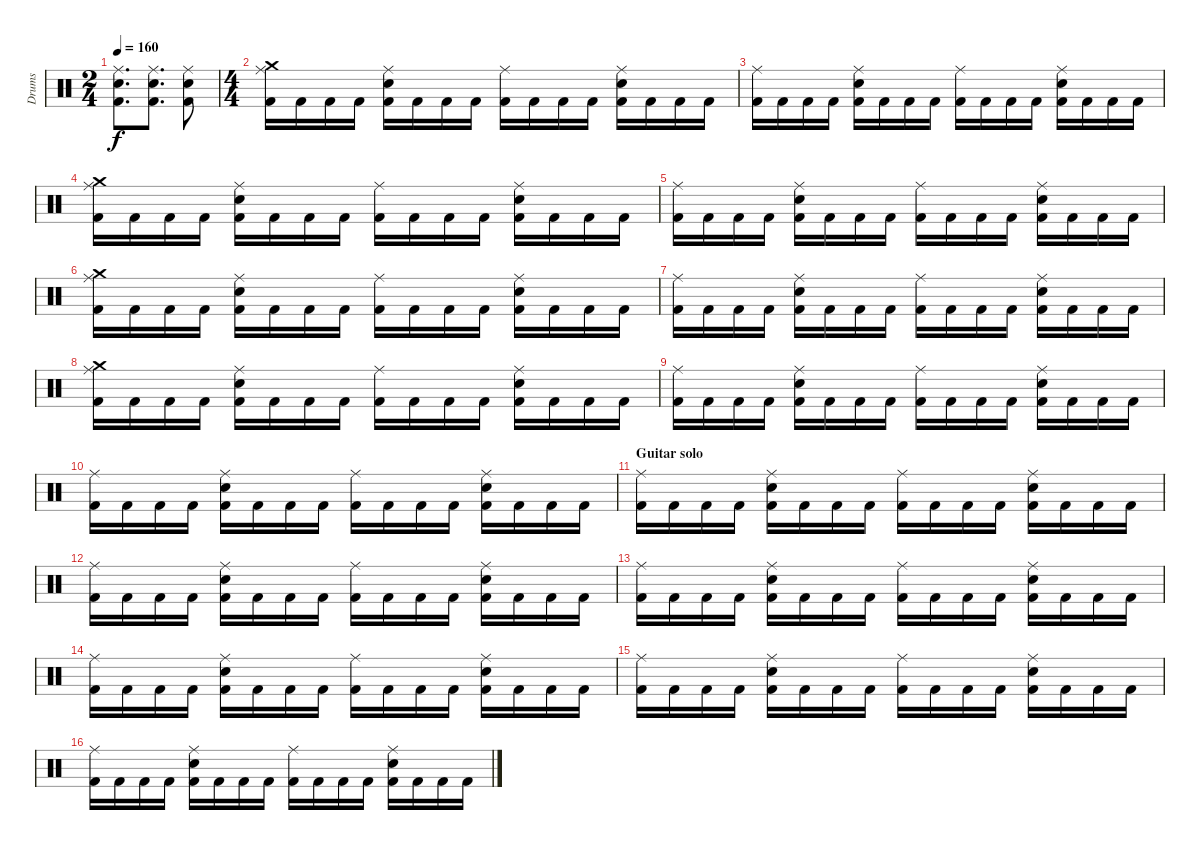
\track ("Drums" "Drums") {instrument percussion}
\staff {score}
\articulation defaults
\ts (2 4)
\tempo 160
\clef neutral
\ks c
("Kick (hit) 2" "Electric Snare (hit)" "Ride (middle)").8{d dy f} ("Kick (hit) 2" "Electric Snare (hit)" "Ride (middle)").8{d} ("Kick (hit) 2" "Electric Snare (hit)" "Ride (middle)").8 |
\ts (4 4)
("Kick (hit) 2" "Ride (middle)" "Crash medium (hit)").16 "Kick (hit) 2".16 "Kick (hit) 2".16 "Kick (hit) 2".16 ("Kick (hit) 2" "Ride (middle)" "Electric Snare (hit)").16 "Kick (hit) 2".16 "Kick (hit) 2".16 "Kick (hit) 2".16 ("Kick (hit) 2" "Ride (middle)").16 "Kick (hit) 2".16 "Kick (hit) 2".16 "Kick (hit) 2".16 ("Kick (hit) 2" "Ride (middle)" "Electric Snare (hit)").16 "Kick (hit) 2".16 "Kick (hit) 2".16 "Kick (hit) 2".16 |
("Kick (hit) 2" "Ride (middle)").16 "Kick (hit) 2".16 "Kick (hit) 2".16 "Kick (hit) 2".16 ("Kick (hit) 2" "Ride (middle)" "Electric Snare (hit)").16 "Kick (hit) 2".16 "Kick (hit) 2".16 "Kick (hit) 2".16 ("Kick (hit) 2" "Ride (middle)").16 "Kick (hit) 2".16 "Kick (hit) 2".16 "Kick (hit) 2".16 ("Kick (hit) 2" "Ride (middle)" "Electric Snare (hit)").16 "Kick (hit) 2".16 "Kick (hit) 2".16 "Kick (hit) 2".16 |
("Kick (hit) 2" "Ride (middle)" "Crash medium (hit)").16 "Kick (hit) 2".16 "Kick (hit) 2".16 "Kick (hit) 2".16 ("Kick (hit) 2" "Ride (middle)" "Electric Snare (hit)").16 "Kick (hit) 2".16 "Kick (hit) 2".16 "Kick (hit) 2".16 ("Kick (hit) 2" "Ride (middle)").16 "Kick (hit) 2".16 "Kick (hit) 2".16 "Kick (hit) 2".16 ("Kick (hit) 2" "Ride (middle)" "Electric Snare (hit)").16 "Kick (hit) 2".16 "Kick (hit) 2".16 "Kick (hit) 2".16 |
("Kick (hit) 2" "Ride (middle)").16 "Kick (hit) 2".16 "Kick (hit) 2".16 "Kick (hit) 2".16 ("Kick (hit) 2" "Ride (middle)" "Electric Snare (hit)").16 "Kick (hit) 2".16 "Kick (hit) 2".16 "Kick (hit) 2".16 ("Kick (hit) 2" "Ride (middle)").16 "Kick (hit) 2".16 "Kick (hit) 2".16 "Kick (hit) 2".16 ("Kick (hit) 2" "Ride (middle)" "Electric Snare (hit)").16 "Kick (hit) 2".16 "Kick (hit) 2".16 "Kick (hit) 2".16 |
("Kick (hit) 2" "Ride (middle)" "Crash medium (hit)").16 "Kick (hit) 2".16 "Kick (hit) 2".16 "Kick (hit) 2".16 ("Kick (hit) 2" "Ride (middle)" "Electric Snare (hit)").16 "Kick (hit) 2".16 "Kick (hit) 2".16 "Kick (hit) 2".16 ("Kick (hit) 2" "Ride (middle)").16 "Kick (hit) 2".16 "Kick (hit) 2".16 "Kick (hit) 2".16 ("Kick (hit) 2" "Ride (middle)" "Electric Snare (hit)").16 "Kick (hit) 2".16 "Kick (hit) 2".16 "Kick (hit) 2".16 |
("Kick (hit) 2" "Ride (middle)").16 "Kick (hit) 2".16 "Kick (hit) 2".16 "Kick (hit) 2".16 ("Kick (hit) 2" "Ride (middle)" "Electric Snare (hit)").16 "Kick (hit) 2".16 "Kick (hit) 2".16 "Kick (hit) 2".16 ("Kick (hit) 2" "Ride (middle)").16 "Kick (hit) 2".16 "Kick (hit) 2".16 "Kick (hit) 2".16 ("Kick (hit) 2" "Ride (middle)" "Electric Snare (hit)").16 "Kick (hit) 2".16 "Kick (hit) 2".16 "Kick (hit) 2".16 |
("Kick (hit) 2" "Ride (middle)" "Crash medium (hit)").16 "Kick (hit) 2".16 "Kick (hit) 2".16 "Kick (hit) 2".16 ("Kick (hit) 2" "Ride (middle)" "Electric Snare (hit)").16 "Kick (hit) 2".16 "Kick (hit) 2".16 "Kick (hit) 2".16 ("Kick (hit) 2" "Ride (middle)").16 "Kick (hit) 2".16 "Kick (hit) 2".16 "Kick (hit) 2".16 ("Kick (hit) 2" "Ride (middle)" "Electric Snare (hit)").16 "Kick (hit) 2".16 "Kick (hit) 2".16 "Kick (hit) 2".16 |
("Kick (hit) 2" "Ride (middle)").16 "Kick (hit) 2".16 "Kick (hit) 2".16 "Kick (hit) 2".16 ("Kick (hit) 2" "Ride (middle)" "Electric Snare (hit)").16 "Kick (hit) 2".16 "Kick (hit) 2".16 "Kick (hit) 2".16 ("Kick (hit) 2" "Ride (middle)").16 "Kick (hit) 2".16 "Kick (hit) 2".16 "Kick (hit) 2".16 ("Kick (hit) 2" "Ride (middle)" "Electric Snare (hit)").16 "Kick (hit) 2".16 "Kick (hit) 2".16 "Kick (hit) 2".16 |
("Kick (hit) 2" "Ride (middle)").16 "Kick (hit) 2".16 "Kick (hit) 2".16 "Kick (hit) 2".16 ("Kick (hit) 2" "Ride (middle)" "Electric Snare (hit)").16 "Kick (hit) 2".16 "Kick (hit) 2".16 "Kick (hit) 2".16 ("Kick (hit) 2" "Ride (middle)").16 "Kick (hit) 2".16 "Kick (hit) 2".16 "Kick (hit) 2".16 ("Kick (hit) 2" "Ride (middle)" "Electric Snare (hit)").16 "Kick (hit) 2".16 "Kick (hit) 2".16 "Kick (hit) 2".16 |
\section ("" "Guitar solo")
("Kick (hit) 2" "Ride (middle)").16 "Kick (hit) 2".16 "Kick (hit) 2".16 "Kick (hit) 2".16 ("Kick (hit) 2" "Ride (middle)" "Electric Snare (hit)").16 "Kick (hit) 2".16 "Kick (hit) 2".16 "Kick (hit) 2".16 ("Kick (hit) 2" "Ride (middle)").16 "Kick (hit) 2".16 "Kick (hit) 2".16 "Kick (hit) 2".16 ("Kick (hit) 2" "Ride (middle)" "Electric Snare (hit)").16 "Kick (hit) 2".16 "Kick (hit) 2".16 "Kick (hit) 2".16 |
("Kick (hit) 2" "Ride (middle)").16 "Kick (hit) 2".16 "Kick (hit) 2".16 "Kick (hit) 2".16 ("Kick (hit) 2" "Ride (middle)" "Electric Snare (hit)").16 "Kick (hit) 2".16 "Kick (hit) 2".16 "Kick (hit) 2".16 ("Kick (hit) 2" "Ride (middle)").16 "Kick (hit) 2".16 "Kick (hit) 2".16 "Kick (hit) 2".16 ("Kick (hit) 2" "Ride (middle)" "Electric Snare (hit)").16 "Kick (hit) 2".16 "Kick (hit) 2".16 "Kick (hit) 2".16 |
("Kick (hit) 2" "Ride (middle)").16 "Kick (hit) 2".16 "Kick (hit) 2".16 "Kick (hit) 2".16 ("Kick (hit) 2" "Ride (middle)" "Electric Snare (hit)").16 "Kick (hit) 2".16 "Kick (hit) 2".16 "Kick (hit) 2".16 ("Kick (hit) 2" "Ride (middle)").16 "Kick (hit) 2".16 "Kick (hit) 2".16 "Kick (hit) 2".16 ("Kick (hit) 2" "Ride (middle)" "Electric Snare (hit)").16 "Kick (hit) 2".16 "Kick (hit) 2".16 "Kick (hit) 2".16 |
("Kick (hit) 2" "Ride (middle)").16 "Kick (hit) 2".16 "Kick (hit) 2".16 "Kick (hit) 2".16 ("Kick (hit) 2" "Ride (middle)" "Electric Snare (hit)").16 "Kick (hit) 2".16 "Kick (hit) 2".16 "Kick (hit) 2".16 ("Kick (hit) 2" "Ride (middle)").16 "Kick (hit) 2".16 "Kick (hit) 2".16 "Kick (hit) 2".16 ("Kick (hit) 2" "Ride (middle)" "Electric Snare (hit)").16 "Kick (hit) 2".16 "Kick (hit) 2".16 "Kick (hit) 2".16 |
("Kick (hit) 2" "Ride (middle)").16 "Kick (hit) 2".16 "Kick (hit) 2".16 "Kick (hit) 2".16 ("Kick (hit) 2" "Ride (middle)" "Electric Snare (hit)").16 "Kick (hit) 2".16 "Kick (hit) 2".16 "Kick (hit) 2".16 ("Kick (hit) 2" "Ride (middle)").16 "Kick (hit) 2".16 "Kick (hit) 2".16 "Kick (hit) 2".16 ("Kick (hit) 2" "Ride (middle)" "Electric Snare (hit)").16 "Kick (hit) 2".16 "Kick (hit) 2".16 "Kick (hit) 2".16 |
("Kick (hit) 2" "Ride (middle)").16 "Kick (hit) 2".16 "Kick (hit) 2".16 "Kick (hit) 2".16 ("Kick (hit) 2" "Ride (middle)" "Electric Snare (hit)").16 "Kick (hit) 2".16 "Kick (hit) 2".16 "Kick (hit) 2".16 ("Kick (hit) 2" "Ride (middle)").16 "Kick (hit) 2".16 "Kick (hit) 2".16 "Kick (hit) 2".16 ("Kick (hit) 2" "Ride (middle)" "Electric Snare (hit)").16 "Kick (hit) 2".16 "Kick (hit) 2".16 "Kick (hit) 2".16
